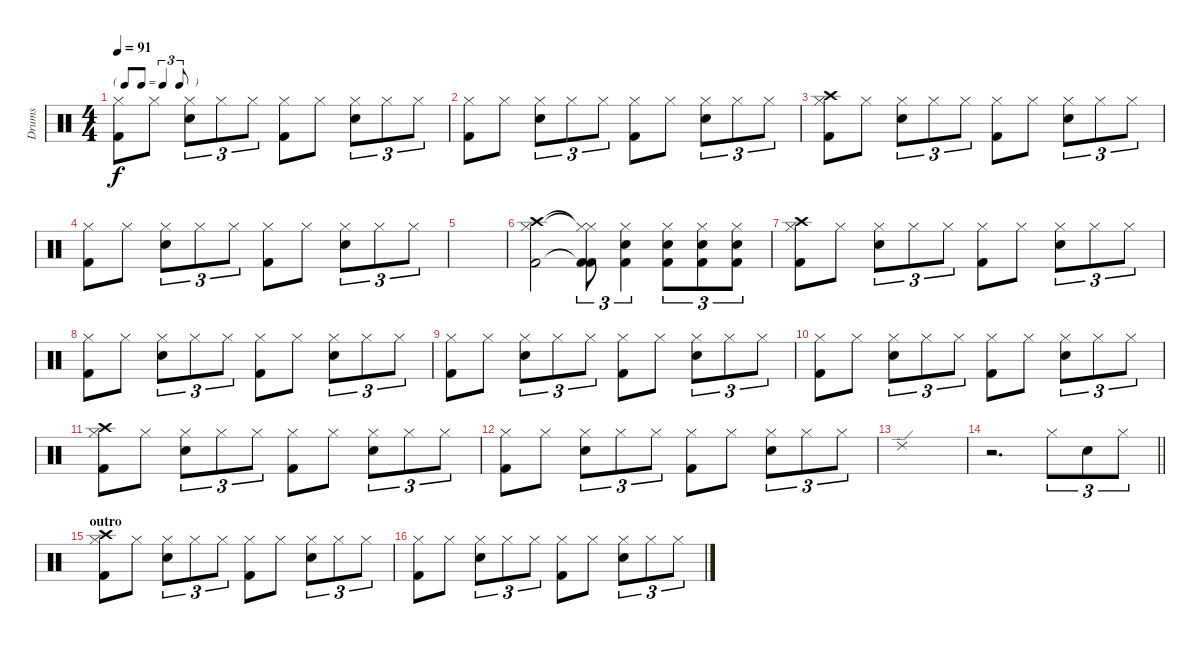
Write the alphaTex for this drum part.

\track ("Drums" "Drums") {instrument percussion}
\staff {score}
\articulation defaults
\ts (4 4)
\tf triplet8th
\tempo 91
\clef neutral
\ks c
("Hi-Hat (closed)" "Kick (hit) 2").8{dy f} "Hi-Hat (closed)".8 ("Hi-Hat (closed)" "Snare (hit) 2").8{tu (3 2)} "Hi-Hat (closed)".8{tu (3 2)} "Hi-Hat (closed)".8{tu (3 2)} ("Hi-Hat (closed)" "Kick (hit) 2").8 "Hi-Hat (closed)".8 ("Hi-Hat (closed)" "Snare (hit) 2").8{tu (3 2)} "Hi-Hat (closed)".8{tu (3 2)} "Hi-Hat (closed)".8{tu (3 2)} |
("Hi-Hat (closed)" "Kick (hit) 2").8 "Hi-Hat (closed)".8 ("Hi-Hat (closed)" "Snare (hit) 2").8{tu (3 2)} "Hi-Hat (closed)".8{tu (3 2)} "Hi-Hat (closed)".8{tu (3 2)} ("Hi-Hat (closed)" "Kick (hit) 2").8 "Hi-Hat (closed)".8 ("Hi-Hat (closed)" "Snare (hit) 2").8{tu (3 2)} "Hi-Hat (closed)".8{tu (3 2)} "Hi-Hat (closed)".8{tu (3 2)} |
("Crash high (hit)" "Hi-Hat (closed)" "Kick (hit) 2").8 "Hi-Hat (closed)".8 ("Hi-Hat (closed)" "Snare (hit) 2").8{tu (3 2)} "Hi-Hat (closed)".8{tu (3 2)} "Hi-Hat (closed)".8{tu (3 2)} ("Hi-Hat (closed)" "Kick (hit) 2").8 "Hi-Hat (closed)".8 ("Hi-Hat (closed)" "Snare (hit) 2").8{tu (3 2)} "Hi-Hat (closed)".8{tu (3 2)} "Hi-Hat (closed)".8{tu (3 2)} |
("Hi-Hat (closed)" "Kick (hit) 2").8 "Hi-Hat (closed)".8 ("Hi-Hat (closed)" "Snare (hit) 2").8{tu (3 2)} "Hi-Hat (closed)".8{tu (3 2)} "Hi-Hat (closed)".8{tu (3 2)} ("Hi-Hat (closed)" "Kick (hit) 2").8 "Hi-Hat (closed)".8 ("Hi-Hat (closed)" "Snare (hit) 2").8{tu (3 2)} "Hi-Hat (closed)".8{tu (3 2)} "Hi-Hat (closed)".8{tu (3 2)} |
|
("Crash high (hit)" "Hi-Hat (closed)" "Kick (hit) 2").2 ("Hi-Hat (closed)"{t} "Hi-Hat (closed)"{t} "Kick (hit) 2"{t} "Kick (hit) 2").8{tu (3 2)} ("Hi-Hat (closed)" "Snare (hit) 2" "Kick (hit) 2").4{tu (3 2)} ("Hi-Hat (closed)" "Snare (hit) 2" "Kick (hit) 2").8{tu (3 2)} ("Hi-Hat (closed)" "Snare (hit) 2" "Kick (hit) 2").8{tu (3 2)} ("Hi-Hat (closed)" "Snare (hit) 2" "Kick (hit) 2").8{tu (3 2)} |
("Crash high (hit)" "Hi-Hat (closed)" "Kick (hit) 2").8 "Hi-Hat (closed)".8 ("Hi-Hat (closed)" "Snare (hit) 2").8{tu (3 2)} "Hi-Hat (closed)".8{tu (3 2)} "Hi-Hat (closed)".8{tu (3 2)} ("Hi-Hat (closed)" "Kick (hit) 2").8 "Hi-Hat (closed)".8 ("Hi-Hat (closed)" "Snare (hit) 2").8{tu (3 2)} "Hi-Hat (closed)".8{tu (3 2)} "Hi-Hat (closed)".8{tu (3 2)} |
("Hi-Hat (closed)" "Kick (hit) 2").8 "Hi-Hat (closed)".8 ("Hi-Hat (closed)" "Snare (hit) 2").8{tu (3 2)} "Hi-Hat (closed)".8{tu (3 2)} "Hi-Hat (closed)".8{tu (3 2)} ("Hi-Hat (closed)" "Kick (hit) 2").8 "Hi-Hat (closed)".8 ("Hi-Hat (closed)" "Snare (hit) 2").8{tu (3 2)} "Hi-Hat (closed)".8{tu (3 2)} "Hi-Hat (closed)".8{tu (3 2)} |
("Hi-Hat (closed)" "Kick (hit) 2").8 "Hi-Hat (closed)".8 ("Hi-Hat (closed)" "Snare (hit) 2").8{tu (3 2)} "Hi-Hat (closed)".8{tu (3 2)} "Hi-Hat (closed)".8{tu (3 2)} ("Hi-Hat (closed)" "Kick (hit) 2").8 "Hi-Hat (closed)".8 ("Hi-Hat (closed)" "Snare (hit) 2").8{tu (3 2)} "Hi-Hat (closed)".8{tu (3 2)} "Hi-Hat (closed)".8{tu (3 2)} |
("Hi-Hat (closed)" "Kick (hit) 2").8 "Hi-Hat (closed)".8 ("Hi-Hat (closed)" "Snare (hit) 2").8{tu (3 2)} "Hi-Hat (closed)".8{tu (3 2)} "Hi-Hat (closed)".8{tu (3 2)} ("Hi-Hat (closed)" "Kick (hit) 2").8 "Hi-Hat (closed)".8 ("Hi-Hat (closed)" "Snare (hit) 2").8{tu (3 2)} "Hi-Hat (closed)".8{tu (3 2)} "Hi-Hat (closed)".8{tu (3 2)} |
("Crash high (hit)" "Hi-Hat (closed)" "Kick (hit) 2").8 "Hi-Hat (closed)".8 ("Hi-Hat (closed)" "Snare (hit) 2").8{tu (3 2)} "Hi-Hat (closed)".8{tu (3 2)} "Hi-Hat (closed)".8{tu (3 2)} ("Hi-Hat (closed)" "Kick (hit) 2").8 "Hi-Hat (closed)".8 ("Hi-Hat (closed)" "Snare (hit) 2").8{tu (3 2)} "Hi-Hat (closed)".8{tu (3 2)} "Hi-Hat (closed)".8{tu (3 2)} |
("Hi-Hat (closed)" "Kick (hit) 2").8 "Hi-Hat (closed)".8 ("Hi-Hat (closed)" "Snare (hit) 2").8{tu (3 2)} "Hi-Hat (closed)".8{tu (3 2)} "Hi-Hat (closed)".8{tu (3 2)} ("Hi-Hat (closed)" "Kick (hit) 2").8 "Hi-Hat (closed)".8 ("Hi-Hat (closed)" "Snare (hit) 2").8{tu (3 2)} "Hi-Hat (closed)".8{tu (3 2)} "Hi-Hat (closed)".8{tu (3 2)} |
"Ride (edge) 2".1 |
\barLineRight lightlight
r.2{d} "Hi-Hat (closed)".8{tu (3 2)} "Snare (hit) 2".8{tu (3 2)} "Hi-Hat (closed)".8{tu (3 2)} |
\section ("" "outro")
("Crash high (hit)" "Hi-Hat (closed)" "Kick (hit) 2").8 "Hi-Hat (closed)".8 ("Hi-Hat (closed)" "Snare (hit) 2").8{tu (3 2)} "Hi-Hat (closed)".8{tu (3 2)} "Hi-Hat (closed)".8{tu (3 2)} ("Hi-Hat (closed)" "Kick (hit) 2").8 "Hi-Hat (closed)".8 ("Hi-Hat (closed)" "Snare (hit) 2").8{tu (3 2)} "Hi-Hat (closed)".8{tu (3 2)} "Hi-Hat (closed)".8{tu (3 2)} |
("Hi-Hat (closed)" "Kick (hit) 2").8 "Hi-Hat (closed)".8 ("Hi-Hat (closed)" "Snare (hit) 2").8{tu (3 2)} "Hi-Hat (closed)".8{tu (3 2)} "Hi-Hat (closed)".8{tu (3 2)} ("Hi-Hat (closed)" "Kick (hit) 2").8 "Hi-Hat (closed)".8 ("Hi-Hat (closed)" "Snare (hit) 2").8{tu (3 2)} "Hi-Hat (closed)".8{tu (3 2)} "Hi-Hat (closed)".8{tu (3 2)}
